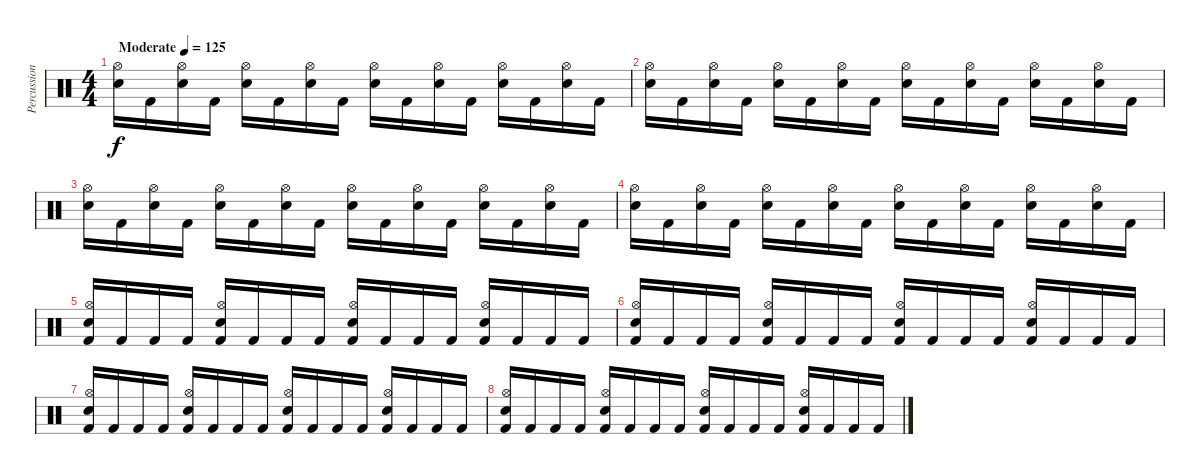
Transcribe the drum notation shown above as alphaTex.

\track ("Percussion" "Percussion") {instrument percussion}
\staff {score}
\articulation defaults
\ts (4 4)
\tempo (125 "Moderate")
\clef neutral
\ks c
("Electric Snare (hit)" "Hi-Hat (open)").16{dy f} "Kick (hit) 2".16 ("Electric Snare (hit)" "Hi-Hat (open)").16 "Kick (hit) 2".16 ("Electric Snare (hit)" "Hi-Hat (open)").16 "Kick (hit) 2".16 ("Electric Snare (hit)" "Hi-Hat (open)").16 "Kick (hit) 2".16 ("Electric Snare (hit)" "Hi-Hat (open)").16 "Kick (hit) 2".16 ("Electric Snare (hit)" "Hi-Hat (open)").16 "Kick (hit) 2".16 ("Electric Snare (hit)" "Hi-Hat (open)").16 "Kick (hit) 2".16 ("Electric Snare (hit)" "Hi-Hat (open)").16 "Kick (hit) 2".16 |
("Electric Snare (hit)" "Hi-Hat (open)").16 "Kick (hit) 2".16 ("Electric Snare (hit)" "Hi-Hat (open)").16 "Kick (hit) 2".16 ("Electric Snare (hit)" "Hi-Hat (open)").16 "Kick (hit) 2".16 ("Electric Snare (hit)" "Hi-Hat (open)").16 "Kick (hit) 2".16 ("Electric Snare (hit)" "Hi-Hat (open)").16 "Kick (hit) 2".16 ("Electric Snare (hit)" "Hi-Hat (open)").16 "Kick (hit) 2".16 ("Electric Snare (hit)" "Hi-Hat (open)").16 "Kick (hit) 2".16 ("Electric Snare (hit)" "Hi-Hat (open)").16 "Kick (hit) 2".16 |
("Electric Snare (hit)" "Hi-Hat (open)").16 "Kick (hit) 2".16 ("Electric Snare (hit)" "Hi-Hat (open)").16 "Kick (hit) 2".16 ("Electric Snare (hit)" "Hi-Hat (open)").16 "Kick (hit) 2".16 ("Electric Snare (hit)" "Hi-Hat (open)").16 "Kick (hit) 2".16 ("Electric Snare (hit)" "Hi-Hat (open)").16 "Kick (hit) 2".16 ("Electric Snare (hit)" "Hi-Hat (open)").16 "Kick (hit) 2".16 ("Electric Snare (hit)" "Hi-Hat (open)").16 "Kick (hit) 2".16 ("Electric Snare (hit)" "Hi-Hat (open)").16 "Kick (hit) 2".16 |
("Electric Snare (hit)" "Hi-Hat (open)").16 "Kick (hit) 2".16 ("Electric Snare (hit)" "Hi-Hat (open)").16 "Kick (hit) 2".16 ("Electric Snare (hit)" "Hi-Hat (open)").16 "Kick (hit) 2".16 ("Electric Snare (hit)" "Hi-Hat (open)").16 "Kick (hit) 2".16 ("Electric Snare (hit)" "Hi-Hat (open)").16 "Kick (hit) 2".16 ("Electric Snare (hit)" "Hi-Hat (open)").16 "Kick (hit) 2".16 ("Electric Snare (hit)" "Hi-Hat (open)").16 "Kick (hit) 2".16 ("Electric Snare (hit)" "Hi-Hat (open)").16 "Kick (hit) 2".16 |
("Electric Snare (hit)" "Hi-Hat (open)" "Kick (hit) 2").16 "Kick (hit) 2".16 "Kick (hit) 2".16 "Kick (hit) 2".16 ("Electric Snare (hit)" "Hi-Hat (open)" "Kick (hit) 2").16 "Kick (hit) 2".16 "Kick (hit) 2".16 "Kick (hit) 2".16 ("Electric Snare (hit)" "Hi-Hat (open)" "Kick (hit) 2").16 "Kick (hit) 2".16 "Kick (hit) 2".16 "Kick (hit) 2".16 ("Electric Snare (hit)" "Hi-Hat (open)" "Kick (hit) 2").16 "Kick (hit) 2".16 "Kick (hit) 2".16 "Kick (hit) 2".16 |
("Electric Snare (hit)" "Hi-Hat (open)" "Kick (hit) 2").16 "Kick (hit) 2".16 "Kick (hit) 2".16 "Kick (hit) 2".16 ("Electric Snare (hit)" "Hi-Hat (open)" "Kick (hit) 2").16 "Kick (hit) 2".16 "Kick (hit) 2".16 "Kick (hit) 2".16 ("Electric Snare (hit)" "Hi-Hat (open)" "Kick (hit) 2").16 "Kick (hit) 2".16 "Kick (hit) 2".16 "Kick (hit) 2".16 ("Electric Snare (hit)" "Hi-Hat (open)" "Kick (hit) 2").16 "Kick (hit) 2".16 "Kick (hit) 2".16 "Kick (hit) 2".16 |
("Electric Snare (hit)" "Hi-Hat (open)" "Kick (hit) 2").16 "Kick (hit) 2".16 "Kick (hit) 2".16 "Kick (hit) 2".16 ("Electric Snare (hit)" "Hi-Hat (open)" "Kick (hit) 2").16 "Kick (hit) 2".16 "Kick (hit) 2".16 "Kick (hit) 2".16 ("Electric Snare (hit)" "Hi-Hat (open)" "Kick (hit) 2").16 "Kick (hit) 2".16 "Kick (hit) 2".16 "Kick (hit) 2".16 ("Electric Snare (hit)" "Hi-Hat (open)" "Kick (hit) 2").16 "Kick (hit) 2".16 "Kick (hit) 2".16 "Kick (hit) 2".16 |
("Electric Snare (hit)" "Hi-Hat (open)" "Kick (hit) 2").16 "Kick (hit) 2".16 "Kick (hit) 2".16 "Kick (hit) 2".16 ("Electric Snare (hit)" "Hi-Hat (open)" "Kick (hit) 2").16 "Kick (hit) 2".16 "Kick (hit) 2".16 "Kick (hit) 2".16 ("Electric Snare (hit)" "Hi-Hat (open)" "Kick (hit) 2").16 "Kick (hit) 2".16 "Kick (hit) 2".16 "Kick (hit) 2".16 ("Electric Snare (hit)" "Hi-Hat (open)" "Kick (hit) 2").16 "Kick (hit) 2".16 "Kick (hit) 2".16 "Kick (hit) 2".16
